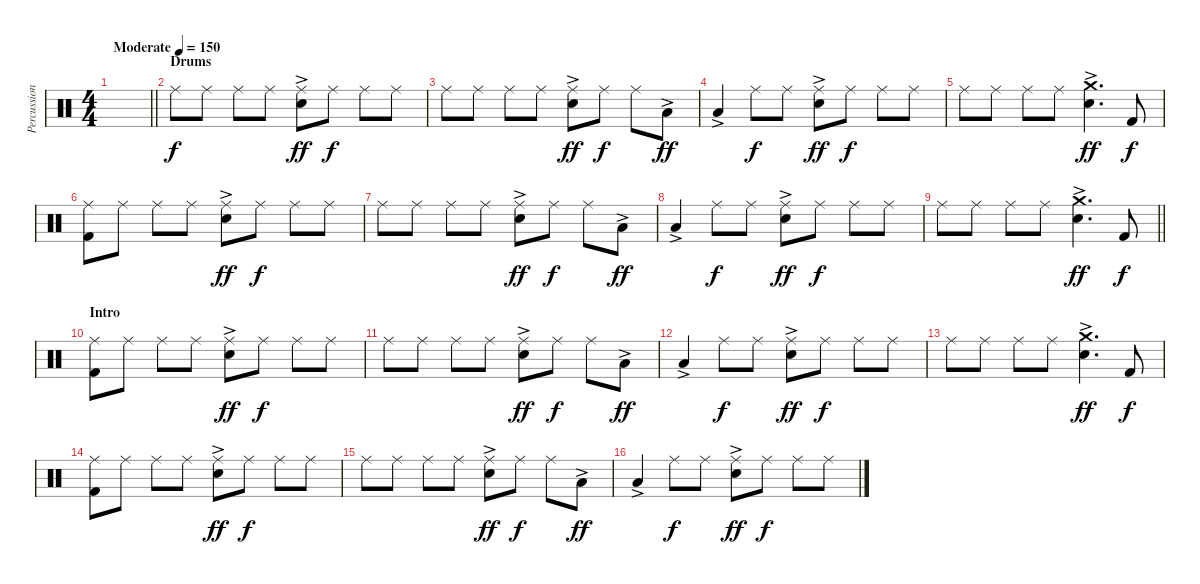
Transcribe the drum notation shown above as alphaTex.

\track ("Percussion" "Percussion") {instrument percussion}
\staff {score}
\articulation defaults
\ts (4 4)
\tempo (150 "Moderate")
\clef neutral
\barLineRight lightlight
\ks c
|
\section ("" "Drums")
"Ride (middle)".8 "Ride (middle)".8 "Ride (middle)".8 "Ride (middle)".8 ("Ride (middle)" "Electric Snare (hit)"{ac}).8{dy ff} "Ride (middle)".8{dy f} "Ride (middle)".8 "Ride (middle)".8 |
"Ride (middle)".8 "Ride (middle)".8 "Ride (middle)".8 "Ride (middle)".8 ("Ride (middle)" "Electric Snare (hit)"{ac}).8{dy ff} "Ride (middle)".8{dy f} "Ride (middle)".8 "Low Tom (hit)"{ac}.8{dy ff} |
"Low Floor Tom (hit)"{ac}.4 "Ride (middle)".8{dy f} "Ride (middle)".8 ("Ride (middle)" "Electric Snare (hit)"{ac}).8{dy ff} "Ride (middle)".8{dy f} "Ride (middle)".8 "Ride (middle)".8 |
"Ride (middle)".8 "Ride (middle)".8 "Ride (middle)".8 "Ride (middle)".8 ("Crash medium (hit)" "Electric Snare (hit)"{ac}).4{d dy ff} "Kick (hit) 2".8{dy f} |
("Ride (middle)" "Kick (hit) 2").8 "Ride (middle)".8 "Ride (middle)".8 "Ride (middle)".8 ("Ride (middle)" "Electric Snare (hit)"{ac}).8{dy ff} "Ride (middle)".8{dy f} "Ride (middle)".8 "Ride (middle)".8 |
"Ride (middle)".8 "Ride (middle)".8 "Ride (middle)".8 "Ride (middle)".8 ("Ride (middle)" "Electric Snare (hit)"{ac}).8{dy ff} "Ride (middle)".8{dy f} "Ride (middle)".8 "Low Tom (hit)"{ac}.8{dy ff} |
"Low Floor Tom (hit)"{ac}.4 "Ride (middle)".8{dy f} "Ride (middle)".8 ("Ride (middle)" "Electric Snare (hit)"{ac}).8{dy ff} "Ride (middle)".8{dy f} "Ride (middle)".8 "Ride (middle)".8 |
\barLineRight lightlight "Ride (middle)".8 "Ride (middle)".8 "Ride (middle)".8 "Ride (middle)".8
("Crash medium (hit)" "Electric Snare (hit)"{ac}).4{d dy ff} "Kick (hit) 2".8{dy f} |
\section ("" "Intro")
("Ride (middle)" "Kick (hit) 2").8 "Ride (middle)".8 "Ride (middle)".8 "Ride (middle)".8 ("Ride (middle)" "Electric Snare (hit)"{ac}).8{dy ff} "Ride (middle)".8{dy f} "Ride (middle)".8 "Ride (middle)".8 |
"Ride (middle)".8 "Ride (middle)".8 "Ride (middle)".8 "Ride (middle)".8 ("Ride (middle)" "Electric Snare (hit)"{ac}).8{dy ff} "Ride (middle)".8{dy f} "Ride (middle)".8 "Low Tom (hit)"{ac}.8{dy ff} |
"Low Floor Tom (hit)"{ac}.4 "Ride (middle)".8{dy f} "Ride (middle)".8 ("Ride (middle)" "Electric Snare (hit)"{ac}).8{dy ff} "Ride (middle)".8{dy f} "Ride (middle)".8 "Ride (middle)".8 |
"Ride (middle)".8 "Ride (middle)".8 "Ride (middle)".8 "Ride (middle)".8 ("Crash medium (hit)" "Electric Snare (hit)"{ac}).4{d dy ff} "Kick (hit) 2".8{dy f} |
("Ride (middle)" "Kick (hit) 2").8 "Ride (middle)".8 "Ride (middle)".8 "Ride (middle)".8 ("Ride (middle)" "Electric Snare (hit)"{ac}).8{dy ff} "Ride (middle)".8{dy f} "Ride (middle)".8 "Ride (middle)".8 |
"Ride (middle)".8 "Ride (middle)".8 "Ride (middle)".8 "Ride (middle)".8 ("Ride (middle)" "Electric Snare (hit)"{ac}).8{dy ff} "Ride (middle)".8{dy f} "Ride (middle)".8 "Low Tom (hit)"{ac}.8{dy ff} |
"Low Floor Tom (hit)"{ac}.4 "Ride (middle)".8{dy f} "Ride (middle)".8 ("Ride (middle)" "Electric Snare (hit)"{ac}).8{dy ff} "Ride (middle)".8{dy f} "Ride (middle)".8 "Ride (middle)".8
